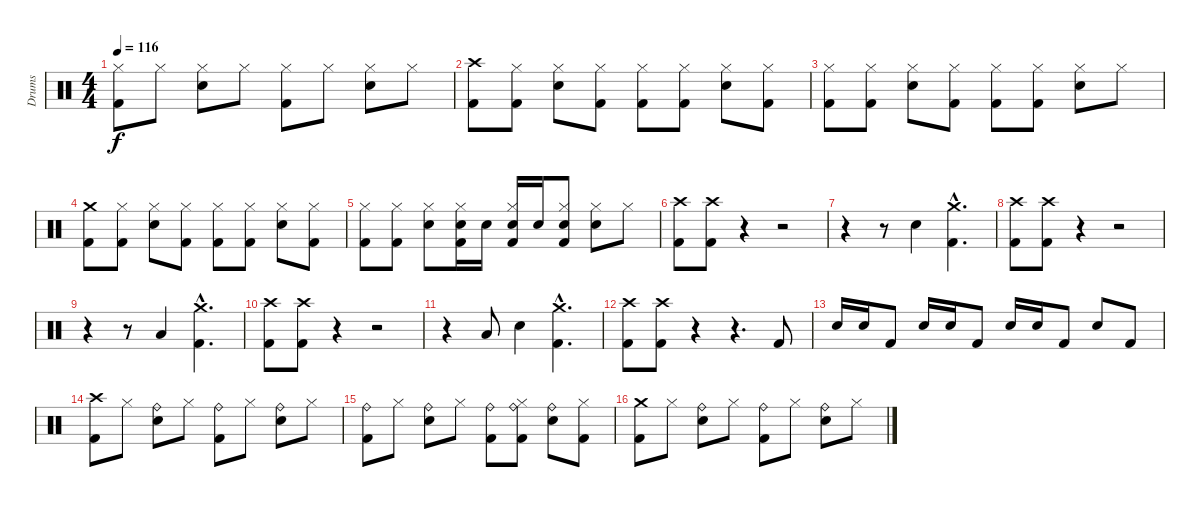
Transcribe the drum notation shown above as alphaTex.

\track ("Drums" "Drums") {instrument percussion}
\staff {score}
\articulation defaults
\ts (4 4)
\tempo 116
\clef neutral
\ks c
("Kick (hit) 2" "Hi-Hat (closed)").8{dy f} "Hi-Hat (closed)".8 ("Snare (hit) 2" "Hi-Hat (closed)").8 "Hi-Hat (closed)".8 ("Kick (hit) 2" "Hi-Hat (closed)").8 "Hi-Hat (closed)".8 ("Snare (hit) 2" "Hi-Hat (closed)").8 "Hi-Hat (closed)".8 |
("Kick (hit) 2" "Crash high (hit)").8 ("Kick (hit) 2" "Hi-Hat (closed)").8 ("Snare (hit) 2" "Hi-Hat (closed)").8 ("Kick (hit) 2" "Hi-Hat (closed)").8 ("Kick (hit) 2" "Hi-Hat (closed)").8 ("Kick (hit) 2" "Hi-Hat (closed)").8 ("Snare (hit) 2" "Hi-Hat (closed)").8 ("Kick (hit) 2" "Hi-Hat (closed)").8 |
("Kick (hit) 2" "Hi-Hat (closed)").8 ("Kick (hit) 2" "Hi-Hat (closed)").8 ("Snare (hit) 2" "Hi-Hat (closed)").8 ("Kick (hit) 2" "Hi-Hat (closed)").8 ("Kick (hit) 2" "Hi-Hat (closed)").8 ("Kick (hit) 2" "Hi-Hat (closed)").8 ("Snare (hit) 2" "Hi-Hat (closed)").8 "Hi-Hat (closed)".8 |
("Kick (hit) 2" "Crash medium (hit)").8 ("Kick (hit) 2" "Hi-Hat (closed)").8 ("Snare (hit) 2" "Hi-Hat (closed)").8 ("Kick (hit) 2" "Hi-Hat (closed)").8 ("Kick (hit) 2" "Hi-Hat (closed)").8 ("Kick (hit) 2" "Hi-Hat (closed)").8 ("Snare (hit) 2" "Hi-Hat (closed)").8 ("Kick (hit) 2" "Hi-Hat (closed)").8 |
("Kick (hit) 2" "Hi-Hat (closed)").8 ("Kick (hit) 2" "Hi-Hat (closed)").8 ("Snare (hit) 2" "Hi-Hat (closed)").8 ("Kick (hit) 2" "Snare (hit) 2" "Hi-Hat (closed)").16 "Snare (hit) 2".16 ("Kick (hit) 2" "Snare (hit) 2" "Hi-Hat (closed)").16 "Snare (hit) 2".16 ("Kick (hit) 2" "Snare (hit) 2" "Hi-Hat (closed)").8 ("Snare (hit) 2" "Hi-Hat (closed)").8 "Hi-Hat (closed)".8 |
("Kick (hit) 2" "Crash high (hit)").8 ("Kick (hit) 2" "Crash high (hit)").8 r.4 r.2 |
r.4 r.8 "Snare (hit) 2".4 ("Kick (hit) 2"{hac} "Crash medium (hit)"{hac}).4{d} |
("Kick (hit) 2" "Crash high (hit)").8 ("Kick (hit) 2" "Crash high (hit)").8 r.4 r.2 |
r.4 r.8 "Low Tom (hit)".4 ("Kick (hit) 2"{hac} "Crash medium (hit)"{hac}).4{d} |
("Kick (hit) 2" "Crash high (hit)").8 ("Kick (hit) 2" "Crash high (hit)").8 r.4 r.2 |
r.4 "Low Tom (hit)".8 "Snare (hit) 2".4 ("Kick (hit) 2"{hac} "Crash medium (hit)"{hac}).4{d} |
("Kick (hit) 2" "Crash high (hit)").8 ("Kick (hit) 2" "Crash high (hit)").8 r.4 r.4{d} "Kick (hit) 2".8 |
"Snare (hit) 2".16 "Snare (hit) 2".16 "Kick (hit) 2".8 "Snare (hit) 2".16 "Snare (hit) 2".16 "Kick (hit) 2".8 "Snare (hit) 2".16 "Snare (hit) 2".16 "Kick (hit) 2".8 "Snare (hit) 2".8 "Kick (hit) 2".8 |
("Kick (hit) 2" "Crash high (hit)").8 "Hi-Hat (closed)".8 ("Snare (hit) 2" "Ride (bell)").8 "Hi-Hat (closed)".8 ("Kick (hit) 2" "Ride (bell)").8 "Hi-Hat (closed)".8 ("Snare (hit) 2" "Ride (bell)").8 "Hi-Hat (closed)".8 |
("Kick (hit) 2" "Ride (bell)").8 "Hi-Hat (closed)".8 ("Snare (hit) 2" "Ride (bell)").8 "Hi-Hat (closed)".8 ("Kick (hit) 2" "Ride (bell)").8 ("Kick (hit) 2" "Hi-Hat (closed)" "Ride (bell)").8 ("Snare (hit) 2" "Ride (bell)").8 ("Kick (hit) 2" "Hi-Hat (closed)").8 |
("Kick (hit) 2" "Crash medium (hit)").8 "Hi-Hat (closed)".8 ("Snare (hit) 2" "Ride (bell)").8 "Hi-Hat (closed)".8 ("Kick (hit) 2" "Ride (bell)").8 "Hi-Hat (closed)".8 ("Snare (hit) 2" "Ride (bell)").8 "Hi-Hat (closed)".8
